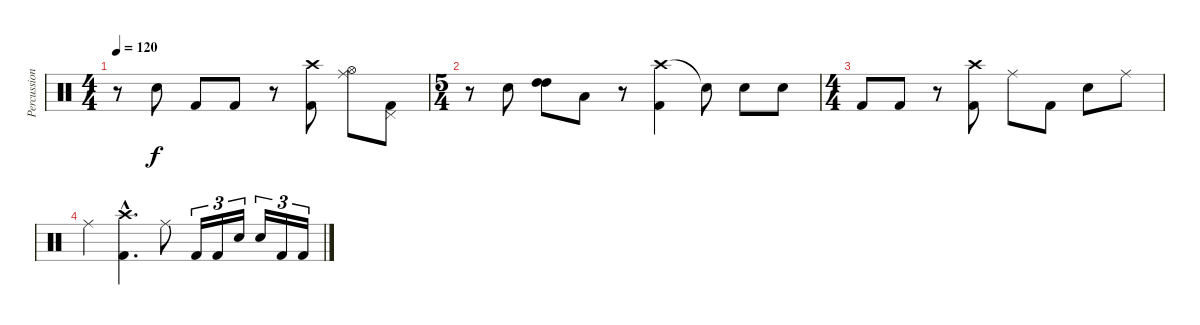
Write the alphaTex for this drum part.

\track ("Percussioni" "Percussion") {instrument percussion}
\staff {score}
\articulation defaults
\ts (4 4)
\tempo 120
\clef neutral
\ks c
r.8{dy f} "Electric Snare (hit)".8 "Kick (hit) 2".8 "Kick (hit) 2".8 r.8 ("Crash high (hit)" "Kick (hit) 2").8 ("Hi-Hat (open)" "Ride (middle)").8 ("Pedal Hi-Hat (hit)" "Kick (hit) 2").8 |
\ts (5 4)
r.8 "Electric Snare (hit)".8 ("High Tom (hit)" "High Tom (hit)").8 "Low Tom (hit)".8 r.8 ("Crash high (hit)" "Kick (hit) 2").4 "Snare (hit)"{t}.8 "Electric Snare (hit)".8 "Electric Snare (hit)".8 |
\ts (4 4)
"Kick (hit) 2".8 "Kick (hit) 2".8 r.8 ("Crash high (hit)" "Kick (hit) 2").8 "Ride (middle)".8 "Kick (hit) 2".8 "Electric Snare (hit)".8 "Ride (middle)".8 |
"Ride (middle)".4 ("Crash high (hit)"{hac} "Kick (hit) 2"{hac}).4{d} "Ride (middle)".8 "Kick (hit) 2".16{tu (3 2)} "Kick (hit) 2".16{tu (3 2)} "Electric Snare (hit)".16{tu (3 2)} "Electric Snare (hit)".16{tu (3 2)} "Kick (hit) 2".16{tu (3 2)} "Kick (hit) 2".16{tu (3 2)}
